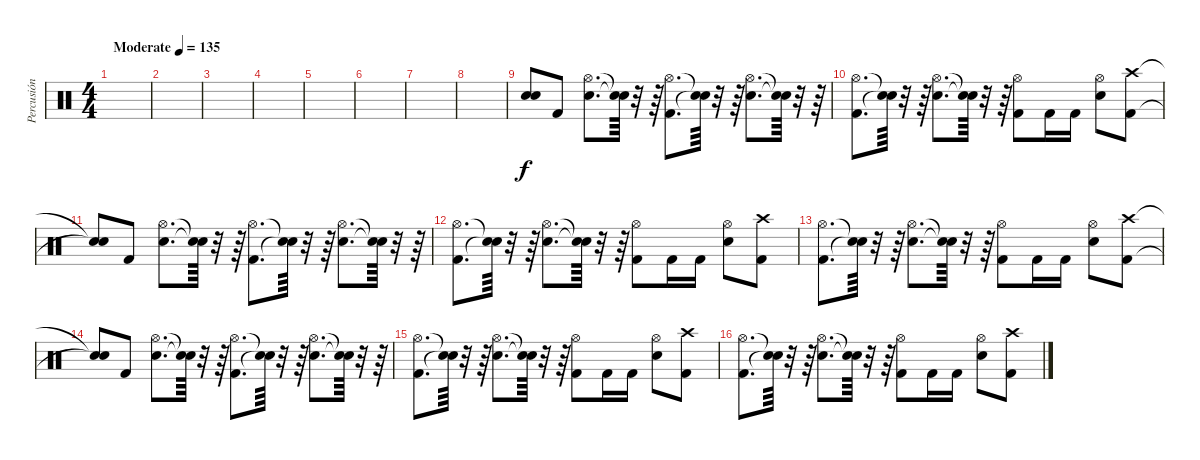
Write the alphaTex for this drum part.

\track ("Percusión" "Percusión") {instrument percussion}
\staff {score}
\articulation defaults
\ts (4 4)
\tempo (135 "Moderate")
\clef neutral
\ks c
|
|
|
|
|
|
|
|
("Snare (hit)" "Snare (hit)").8 "Kick (hit) 2".8 ("Snare (hit) 2" "Hi-Hat (open)").8{d} ("Snare (hit)"{t} "Snare (hit)"{t}).64 r.32 r.64 ("Kick (hit) 2" "Hi-Hat (open)").8{d} ("Snare (hit)"{t} "Snare (hit)"{t}).64 r.32 r.64 ("Snare (hit) 2" "Hi-Hat (open)").8{d} ("Snare (hit)"{t} "Snare (hit)"{t}).64 r.32 r.64 |
("Kick (hit) 2" "Hi-Hat (open)").8{d} ("Snare (hit)"{t} "Snare (hit)"{t}).64 r.32 r.64 ("Snare (hit) 2" "Hi-Hat (open)").8{d} ("Snare (hit)"{t} "Snare (hit)"{t}).64 r.32 r.64 ("Kick (hit) 2" "Hi-Hat (open)").8 "Kick (hit) 2".16 "Kick (hit) 2".16 ("Snare (hit) 2" "Hi-Hat (open)").8 ("Kick (hit) 2" "Crash high (hit)").8 |
("Snare (hit)"{t} "Snare (hit)"{t}).8 "Kick (hit) 2".8 ("Snare (hit) 2" "Hi-Hat (open)").8{d} ("Snare (hit)"{t} "Snare (hit)"{t}).64 r.32 r.64 ("Kick (hit) 2" "Hi-Hat (open)").8{d} ("Snare (hit)"{t} "Snare (hit)"{t}).64 r.32 r.64 ("Snare (hit) 2" "Hi-Hat (open)").8{d} ("Snare (hit)"{t} "Snare (hit)"{t}).64 r.32 r.64 |
("Kick (hit) 2" "Hi-Hat (open)").8{d} ("Snare (hit)"{t} "Snare (hit)"{t}).64 r.32 r.64 ("Snare (hit) 2" "Hi-Hat (open)").8{d} ("Snare (hit)"{t} "Snare (hit)"{t}).64 r.32 r.64 ("Kick (hit) 2" "Hi-Hat (open)").8 "Kick (hit) 2".16 "Kick (hit) 2".16 ("Snare (hit) 2" "Hi-Hat (open)").8 ("Kick (hit) 2" "Crash high (hit)").8 |
("Kick (hit) 2" "Hi-Hat (open)").8{d} ("Snare (hit)"{t} "Snare (hit)"{t}).64 r.32 r.64 ("Snare (hit) 2" "Hi-Hat (open)").8{d} ("Snare (hit)"{t} "Snare (hit)"{t}).64 r.32 r.64 ("Kick (hit) 2" "Hi-Hat (open)").8 "Kick (hit) 2".16 "Kick (hit) 2".16 ("Snare (hit) 2" "Hi-Hat (open)").8 ("Kick (hit) 2" "Crash high (hit)").8 |
("Snare (hit)"{t} "Snare (hit)"{t}).8 "Kick (hit) 2".8 ("Snare (hit) 2" "Hi-Hat (open)").8{d} ("Snare (hit)"{t} "Snare (hit)"{t}).64 r.32 r.64 ("Kick (hit) 2" "Hi-Hat (open)").8{d} ("Snare (hit)"{t} "Snare (hit)"{t}).64 r.32 r.64 ("Snare (hit) 2" "Hi-Hat (open)").8{d} ("Snare (hit)"{t} "Snare (hit)"{t}).64 r.32 r.64 |
("Kick (hit) 2" "Hi-Hat (open)").8{d} ("Snare (hit)"{t} "Snare (hit)"{t}).64 r.32 r.64 ("Snare (hit) 2" "Hi-Hat (open)").8{d} ("Snare (hit)"{t} "Snare (hit)"{t}).64 r.32 r.64 ("Kick (hit) 2" "Hi-Hat (open)").8 "Kick (hit) 2".16 "Kick (hit) 2".16 ("Snare (hit) 2" "Hi-Hat (open)").8 ("Kick (hit) 2" "Crash high (hit)").8 |
("Kick (hit) 2" "Hi-Hat (open)").8{d} ("Snare (hit)"{t} "Snare (hit)"{t}).64 r.32 r.64 ("Snare (hit) 2" "Hi-Hat (open)").8{d} ("Snare (hit)"{t} "Snare (hit)"{t}).64 r.32 r.64 ("Kick (hit) 2" "Hi-Hat (open)").8 "Kick (hit) 2".16 "Kick (hit) 2".16 ("Snare (hit) 2" "Hi-Hat (open)").8 ("Kick (hit) 2" "Crash high (hit)").8
